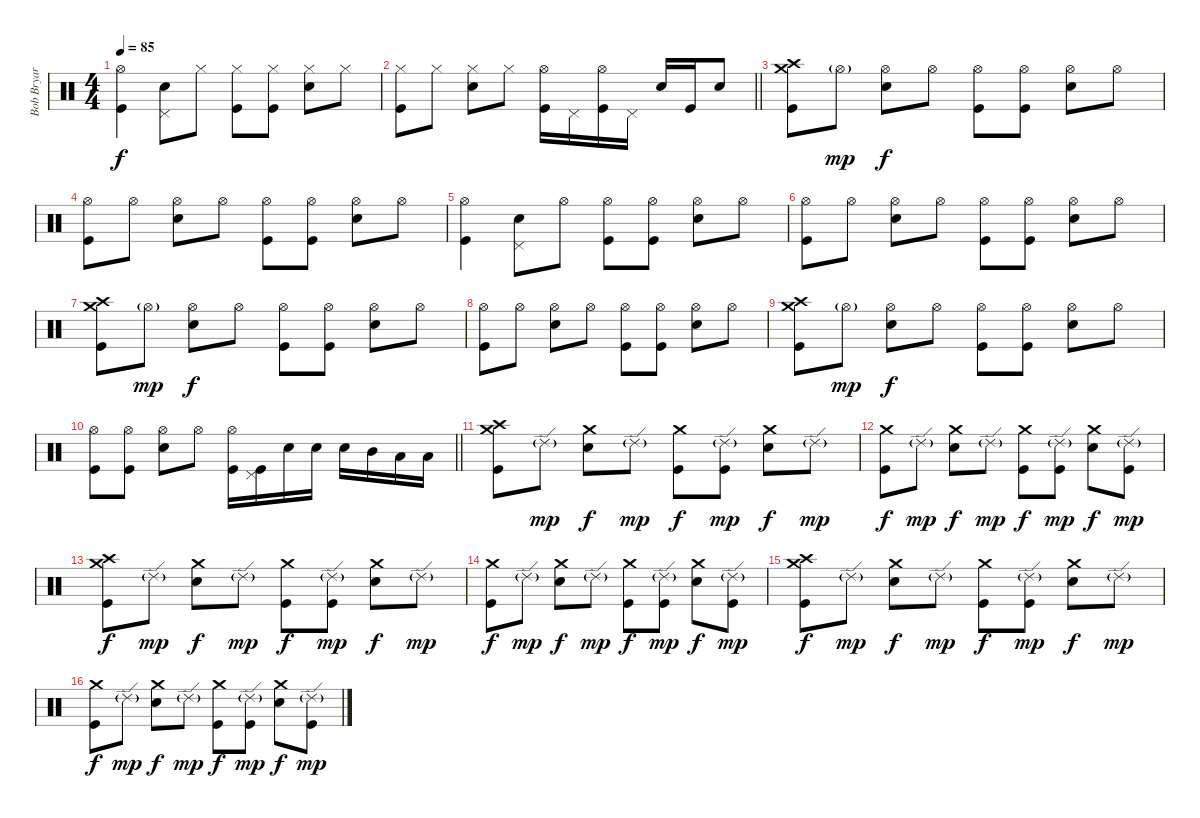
\track ("Bob Bryar [Drums]" "Bob Bryar ") {instrument percussion}
\staff {score}
\articulation defaults
\ts (4 4)
\tempo 85
\clef neutral
\ks c
("Hi-Hat (open)" "Kick (hit)").4{dy f} ("Pedal Hi-Hat (hit)" "Electric Snare (hit)").8 "Hi-Hat (closed)".8 ("Hi-Hat (closed)" "Kick (hit)").8 ("Hi-Hat (closed)" "Kick (hit)").8 ("Hi-Hat (closed)" "Electric Snare (hit)").8 "Hi-Hat (closed)".8 |
\barLineRight lightlight
("Hi-Hat (closed)" "Kick (hit)").8 "Hi-Hat (closed)".8 ("Hi-Hat (closed)" "Electric Snare (hit)").8 "Hi-Hat (closed)".8 ("Hi-Hat (open)" "Kick (hit)").16 "Pedal Hi-Hat (hit)".16 ("Hi-Hat (open)" "Kick (hit)").16 "Pedal Hi-Hat (hit)".16 "Electric Snare (hit)".16 "Kick (hit)".16 "Electric Snare (hit)".8 |
("Crash high (hit)" "Crash medium (hit)" "Kick (hit)").8 "Hi-Hat (open)"{g}.8{dy mp} ("Hi-Hat (open)" "Electric Snare (hit)").8{dy f} "Hi-Hat (open)".8 ("Hi-Hat (open)" "Kick (hit)").8 ("Hi-Hat (open)" "Kick (hit)").8 ("Hi-Hat (open)" "Electric Snare (hit)").8 "Hi-Hat (open)".8 |
("Hi-Hat (open)" "Kick (hit)").8 "Hi-Hat (open)".8 ("Hi-Hat (open)" "Electric Snare (hit)").8 "Hi-Hat (open)".8 ("Hi-Hat (open)" "Kick (hit)").8 ("Hi-Hat (open)" "Kick (hit)").8 ("Hi-Hat (open)" "Electric Snare (hit)").8 "Hi-Hat (open)".8 |
("Hi-Hat (open)" "Kick (hit)").4 ("Pedal Hi-Hat (hit)" "Electric Snare (hit)").8 "Hi-Hat (open)".8 ("Hi-Hat (open)" "Kick (hit)").8 ("Hi-Hat (open)" "Kick (hit)").8 ("Hi-Hat (open)" "Electric Snare (hit)").8 "Hi-Hat (open)".8 |
("Hi-Hat (open)" "Kick (hit)").8 "Hi-Hat (open)".8 ("Hi-Hat (open)" "Electric Snare (hit)").8 "Hi-Hat (open)".8 ("Hi-Hat (open)" "Kick (hit)").8 ("Hi-Hat (open)" "Kick (hit)").8 ("Hi-Hat (open)" "Electric Snare (hit)").8 "Hi-Hat (open)".8 |
("Crash high (hit)" "Crash medium (hit)" "Kick (hit)").8 "Hi-Hat (open)"{g}.8{dy mp} ("Hi-Hat (open)" "Electric Snare (hit)").8{dy f} "Hi-Hat (open)".8 ("Hi-Hat (open)" "Kick (hit)").8 ("Hi-Hat (open)" "Kick (hit)").8 ("Hi-Hat (open)" "Electric Snare (hit)").8 "Hi-Hat (open)".8 |
("Hi-Hat (open)" "Kick (hit)").8 "Hi-Hat (open)".8 ("Hi-Hat (open)" "Electric Snare (hit)").8 "Hi-Hat (open)".8 ("Hi-Hat (open)" "Kick (hit)").8 ("Hi-Hat (open)" "Kick (hit)").8 ("Hi-Hat (open)" "Electric Snare (hit)").8 "Hi-Hat (open)".8 |
("Crash high (hit)" "Crash medium (hit)" "Kick (hit)").8 "Hi-Hat (open)"{g}.8{dy mp} ("Hi-Hat (open)" "Electric Snare (hit)").8{dy f} "Hi-Hat (open)".8 ("Hi-Hat (open)" "Kick (hit)").8 ("Hi-Hat (open)" "Kick (hit)").8 ("Hi-Hat (open)" "Electric Snare (hit)").8 "Hi-Hat (open)".8 |
\barLineRight lightlight
("Hi-Hat (open)" "Kick (hit)").8 ("Hi-Hat (open)" "Kick (hit)").8 ("Hi-Hat (open)" "Electric Snare (hit)").8 "Hi-Hat (open)".8 ("Hi-Hat (open)" "Kick (hit)").16 ("Pedal Hi-Hat (hit)" "Kick (hit)").16 "Electric Snare (hit)".16 "Electric Snare (hit)".16 "Electric Snare (hit)".16 "Mid Tom (hit)".16 "Low Floor Tom (hit)".16 "Low Floor Tom (hit)".16 |
("Crash high (hit)" "Crash medium (hit)" "Kick (hit)").8 "Ride (edge) 2"{g}.8{dy mp} ("Crash medium (hit)" "Electric Snare (hit)").8{dy f} "Ride (edge) 2"{g}.8{dy mp} ("Crash medium (hit)" "Kick (hit)").8{dy f} ("Ride (edge) 2"{g} "Kick (hit)").8{dy mp} ("Crash medium (hit)" "Electric Snare (hit)").8{dy f} "Ride (edge) 2"{g}.8{dy mp} |
("Crash medium (hit)" "Kick (hit)").8{dy f} "Ride (edge) 2"{g}.8{dy mp} ("Crash medium (hit)" "Electric Snare (hit)").8{dy f} "Ride (edge) 2"{g}.8{dy mp} ("Crash medium (hit)" "Kick (hit)").8{dy f} ("Ride (edge) 2"{g} "Kick (hit)").8{dy mp} ("Crash medium (hit)" "Electric Snare (hit)").8{dy f} ("Ride (edge) 2"{g} "Kick (hit)").8{dy mp} |
("Crash high (hit)" "Crash medium (hit)" "Kick (hit)").8{dy f} "Ride (edge) 2"{g}.8{dy mp} ("Crash medium (hit)" "Electric Snare (hit)").8{dy f} "Ride (edge) 2"{g}.8{dy mp} ("Crash medium (hit)" "Kick (hit)").8{dy f} ("Ride (edge) 2"{g} "Kick (hit)").8{dy mp} ("Crash medium (hit)" "Electric Snare (hit)").8{dy f} "Ride (edge) 2"{g}.8{dy mp} |
("Crash medium (hit)" "Kick (hit)").8{dy f} "Ride (edge) 2"{g}.8{dy mp} ("Crash medium (hit)" "Electric Snare (hit)").8{dy f} "Ride (edge) 2"{g}.8{dy mp} ("Crash medium (hit)" "Kick (hit)").8{dy f} ("Ride (edge) 2"{g} "Kick (hit)").8{dy mp} ("Crash medium (hit)" "Electric Snare (hit)").8{dy f} ("Ride (edge) 2"{g} "Kick (hit)").8{dy mp} |
("Crash high (hit)" "Crash medium (hit)" "Kick (hit)").8{dy f} "Ride (edge) 2"{g}.8{dy mp} ("Crash medium (hit)" "Electric Snare (hit)").8{dy f} "Ride (edge) 2"{g}.8{dy mp} ("Crash medium (hit)" "Kick (hit)").8{dy f} ("Ride (edge) 2"{g} "Kick (hit)").8{dy mp} ("Crash medium (hit)" "Electric Snare (hit)").8{dy f} "Ride (edge) 2"{g}.8{dy mp} |
("Crash medium (hit)" "Kick (hit)").8{dy f} "Ride (edge) 2"{g}.8{dy mp} ("Crash medium (hit)" "Electric Snare (hit)").8{dy f} "Ride (edge) 2"{g}.8{dy mp} ("Crash medium (hit)" "Kick (hit)").8{dy f} ("Ride (edge) 2"{g} "Kick (hit)").8{dy mp} ("Crash medium (hit)" "Electric Snare (hit)").8{dy f} ("Ride (edge) 2"{g} "Kick (hit)").8{dy mp}
